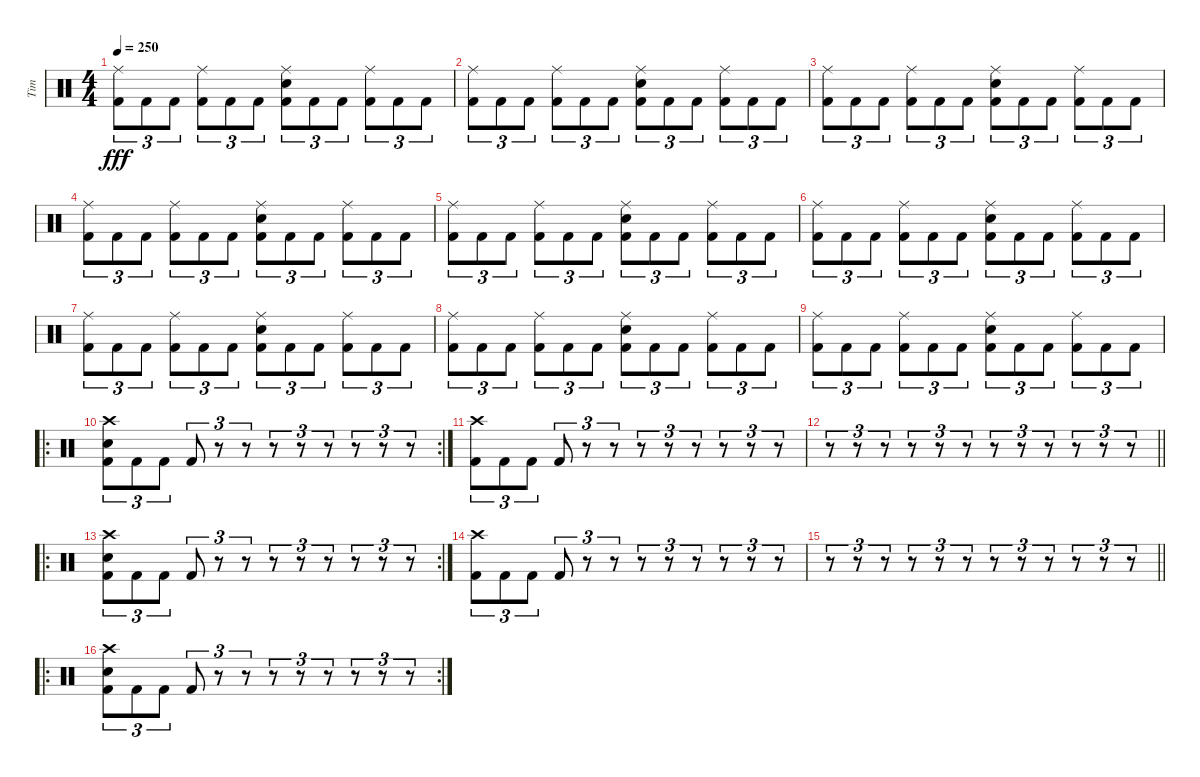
\track ("Tim" "Tim") {instrument percussion}
\staff {score}
\articulation defaults
\ts (4 4)
\tempo 250
\clef neutral
\ks c
("Ride (middle)" "Kick (hit) 2").8{tu (3 2) dy fff} "Kick (hit) 2".8{tu (3 2)} "Kick (hit) 2".8{tu (3 2)} ("Ride (middle)" "Kick (hit) 2").8{tu (3 2)} "Kick (hit) 2".8{tu (3 2)} "Kick (hit) 2".8{tu (3 2)} ("Ride (middle)" "Electric Snare (hit)" "Kick (hit) 2").8{tu (3 2)} "Kick (hit) 2".8{tu (3 2)} "Kick (hit) 2".8{tu (3 2)} ("Ride (middle)" "Kick (hit) 2").8{tu (3 2)} "Kick (hit) 2".8{tu (3 2)} "Kick (hit) 2".8{tu (3 2)} |
("Ride (middle)" "Kick (hit) 2").8{tu (3 2)} "Kick (hit) 2".8{tu (3 2)} "Kick (hit) 2".8{tu (3 2)} ("Ride (middle)" "Kick (hit) 2").8{tu (3 2)} "Kick (hit) 2".8{tu (3 2)} "Kick (hit) 2".8{tu (3 2)} ("Ride (middle)" "Electric Snare (hit)" "Kick (hit) 2").8{tu (3 2)} "Kick (hit) 2".8{tu (3 2)} "Kick (hit) 2".8{tu (3 2)} ("Ride (middle)" "Kick (hit) 2").8{tu (3 2)} "Kick (hit) 2".8{tu (3 2)} "Kick (hit) 2".8{tu (3 2)} |
("Ride (middle)" "Kick (hit) 2").8{tu (3 2)} "Kick (hit) 2".8{tu (3 2)} "Kick (hit) 2".8{tu (3 2)} ("Ride (middle)" "Kick (hit) 2").8{tu (3 2)} "Kick (hit) 2".8{tu (3 2)} "Kick (hit) 2".8{tu (3 2)} ("Ride (middle)" "Electric Snare (hit)" "Kick (hit) 2").8{tu (3 2)} "Kick (hit) 2".8{tu (3 2)} "Kick (hit) 2".8{tu (3 2)} ("Ride (middle)" "Kick (hit) 2").8{tu (3 2)} "Kick (hit) 2".8{tu (3 2)} "Kick (hit) 2".8{tu (3 2)} |
("Ride (middle)" "Kick (hit) 2").8{tu (3 2)} "Kick (hit) 2".8{tu (3 2)} "Kick (hit) 2".8{tu (3 2)} ("Ride (middle)" "Kick (hit) 2").8{tu (3 2)} "Kick (hit) 2".8{tu (3 2)} "Kick (hit) 2".8{tu (3 2)} ("Ride (middle)" "Electric Snare (hit)" "Kick (hit) 2").8{tu (3 2)} "Kick (hit) 2".8{tu (3 2)} "Kick (hit) 2".8{tu (3 2)} ("Ride (middle)" "Kick (hit) 2").8{tu (3 2)} "Kick (hit) 2".8{tu (3 2)} "Kick (hit) 2".8{tu (3 2)} |
("Ride (middle)" "Kick (hit) 2").8{tu (3 2)} "Kick (hit) 2".8{tu (3 2)} "Kick (hit) 2".8{tu (3 2)} ("Ride (middle)" "Kick (hit) 2").8{tu (3 2)} "Kick (hit) 2".8{tu (3 2)} "Kick (hit) 2".8{tu (3 2)} ("Ride (middle)" "Electric Snare (hit)" "Kick (hit) 2").8{tu (3 2)} "Kick (hit) 2".8{tu (3 2)} "Kick (hit) 2".8{tu (3 2)} ("Ride (middle)" "Kick (hit) 2").8{tu (3 2)} "Kick (hit) 2".8{tu (3 2)} "Kick (hit) 2".8{tu (3 2)} |
("Ride (middle)" "Kick (hit) 2").8{tu (3 2)} "Kick (hit) 2".8{tu (3 2)} "Kick (hit) 2".8{tu (3 2)} ("Ride (middle)" "Kick (hit) 2").8{tu (3 2)} "Kick (hit) 2".8{tu (3 2)} "Kick (hit) 2".8{tu (3 2)} ("Ride (middle)" "Electric Snare (hit)" "Kick (hit) 2").8{tu (3 2)} "Kick (hit) 2".8{tu (3 2)} "Kick (hit) 2".8{tu (3 2)} ("Ride (middle)" "Kick (hit) 2").8{tu (3 2)} "Kick (hit) 2".8{tu (3 2)} "Kick (hit) 2".8{tu (3 2)} |
("Ride (middle)" "Kick (hit) 2").8{tu (3 2)} "Kick (hit) 2".8{tu (3 2)} "Kick (hit) 2".8{tu (3 2)} ("Ride (middle)" "Kick (hit) 2").8{tu (3 2)} "Kick (hit) 2".8{tu (3 2)} "Kick (hit) 2".8{tu (3 2)} ("Ride (middle)" "Electric Snare (hit)" "Kick (hit) 2").8{tu (3 2)} "Kick (hit) 2".8{tu (3 2)} "Kick (hit) 2".8{tu (3 2)} ("Ride (middle)" "Kick (hit) 2").8{tu (3 2)} "Kick (hit) 2".8{tu (3 2)} "Kick (hit) 2".8{tu (3 2)} |
("Ride (middle)" "Kick (hit) 2").8{tu (3 2)} "Kick (hit) 2".8{tu (3 2)} "Kick (hit) 2".8{tu (3 2)} ("Ride (middle)" "Kick (hit) 2").8{tu (3 2)} "Kick (hit) 2".8{tu (3 2)} "Kick (hit) 2".8{tu (3 2)} ("Ride (middle)" "Electric Snare (hit)" "Kick (hit) 2").8{tu (3 2)} "Kick (hit) 2".8{tu (3 2)} "Kick (hit) 2".8{tu (3 2)} ("Ride (middle)" "Kick (hit) 2").8{tu (3 2)} "Kick (hit) 2".8{tu (3 2)} "Kick (hit) 2".8{tu (3 2)} |
("Ride (middle)" "Kick (hit) 2").8{tu (3 2)} "Kick (hit) 2".8{tu (3 2)} "Kick (hit) 2".8{tu (3 2)} ("Ride (middle)" "Kick (hit) 2").8{tu (3 2)} "Kick (hit) 2".8{tu (3 2)} "Kick (hit) 2".8{tu (3 2)} ("Ride (middle)" "Electric Snare (hit)" "Kick (hit) 2").8{tu (3 2)} "Kick (hit) 2".8{tu (3 2)} "Kick (hit) 2".8{tu (3 2)} ("Ride (middle)" "Kick (hit) 2").8{tu (3 2)} "Kick (hit) 2".8{tu (3 2)} "Kick (hit) 2".8{tu (3 2)} |
\ro
\rc 2
("Crash high (hit)" "Electric Snare (hit)" "Kick (hit) 2").8{tu (3 2)} "Kick (hit) 2".8{tu (3 2)} "Kick (hit) 2".8{tu (3 2)} "Kick (hit) 2".8{tu (3 2)} r.8{tu (3 2)} r.8{tu (3 2)} r.8{tu (3 2)} r.8{tu (3 2)} r.8{tu (3 2)} r.8{tu (3 2)} r.8{tu (3 2)} r.8{tu (3 2)} |
("Crash high (hit)" "Kick (hit) 2").8{tu (3 2)} "Kick (hit) 2".8{tu (3 2)} "Kick (hit) 2".8{tu (3 2)} "Kick (hit) 2".8{tu (3 2)} r.8{tu (3 2)} r.8{tu (3 2)} r.8{tu (3 2)} r.8{tu (3 2)} r.8{tu (3 2)} r.8{tu (3 2)} r.8{tu (3 2)} r.8{tu (3 2)} |
\barLineRight lightlight
r.8{tu (3 2)} r.8{tu (3 2)} r.8{tu (3 2)} r.8{tu (3 2)} r.8{tu (3 2)} r.8{tu (3 2)} r.8{tu (3 2)} r.8{tu (3 2)} r.8{tu (3 2)} r.8{tu (3 2)} r.8{tu (3 2)} r.8{tu (3 2)} |
\ro
\rc 2
("Crash high (hit)" "Electric Snare (hit)" "Kick (hit) 2").8{tu (3 2)} "Kick (hit) 2".8{tu (3 2)} "Kick (hit) 2".8{tu (3 2)} "Kick (hit) 2".8{tu (3 2)} r.8{tu (3 2)} r.8{tu (3 2)} r.8{tu (3 2)} r.8{tu (3 2)} r.8{tu (3 2)} r.8{tu (3 2)} r.8{tu (3 2)} r.8{tu (3 2)} |
("Crash high (hit)" "Kick (hit) 2").8{tu (3 2)} "Kick (hit) 2".8{tu (3 2)} "Kick (hit) 2".8{tu (3 2)} "Kick (hit) 2".8{tu (3 2)} r.8{tu (3 2)} r.8{tu (3 2)} r.8{tu (3 2)} r.8{tu (3 2)} r.8{tu (3 2)} r.8{tu (3 2)} r.8{tu (3 2)} r.8{tu (3 2)} |
\barLineRight lightlight
r.8{tu (3 2)} r.8{tu (3 2)} r.8{tu (3 2)} r.8{tu (3 2)} r.8{tu (3 2)} r.8{tu (3 2)} r.8{tu (3 2)} r.8{tu (3 2)} r.8{tu (3 2)} r.8{tu (3 2)} r.8{tu (3 2)} r.8{tu (3 2)} |
\ro
\rc 2
("Crash high (hit)" "Electric Snare (hit)" "Kick (hit) 2").8{tu (3 2)} "Kick (hit) 2".8{tu (3 2)} "Kick (hit) 2".8{tu (3 2)} "Kick (hit) 2".8{tu (3 2)} r.8{tu (3 2)} r.8{tu (3 2)} r.8{tu (3 2)} r.8{tu (3 2)} r.8{tu (3 2)} r.8{tu (3 2)} r.8{tu (3 2)} r.8{tu (3 2)}
